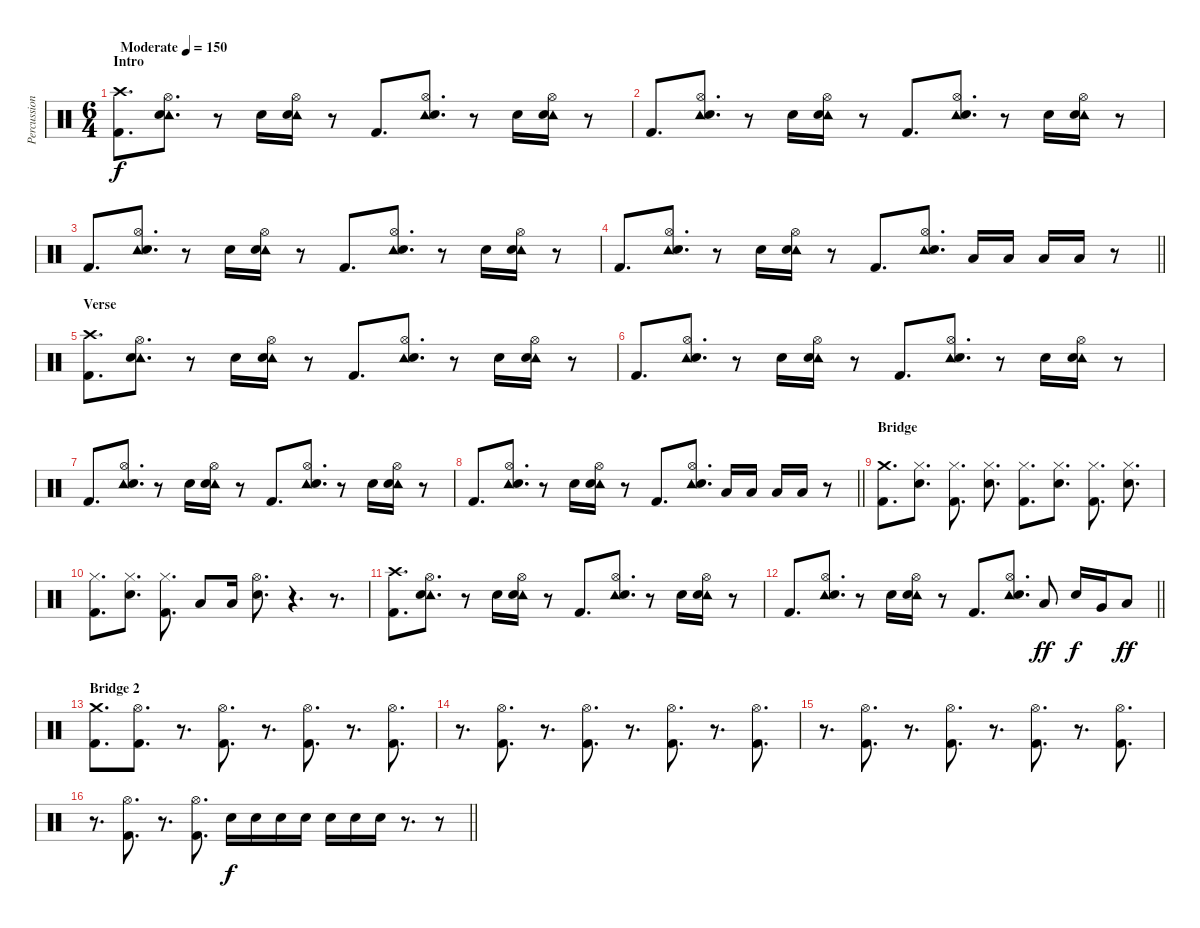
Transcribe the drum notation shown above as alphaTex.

\track ("Percussion" "Percussion") {solo instrument percussion}
\staff {score}
\articulation defaults
\ts (6 4)
\section ("" "Intro")
\tempo (150 "Moderate")
\clef neutral
\ks c
("Crash high (hit)" "Kick (hit) 2").8{d dy f} ("Tambourine (hit)" "Hi-Hat (open)" "Electric Snare (hit)").8{d} r.8 "Electric Snare (hit)".16 ("Tambourine (hit)" "Hi-Hat (open)" "Electric Snare (hit)").16 r.8 "Kick (hit) 2".8{d} ("Tambourine (hit)" "Hi-Hat (open)" "Electric Snare (hit)").8{d} r.8 "Electric Snare (hit)".16 ("Tambourine (hit)" "Hi-Hat (open)" "Electric Snare (hit)").16 r.8 |
"Kick (hit) 2".8{d} ("Tambourine (hit)" "Hi-Hat (open)" "Electric Snare (hit)").8{d} r.8 "Electric Snare (hit)".16 ("Tambourine (hit)" "Hi-Hat (open)" "Electric Snare (hit)").16 r.8 "Kick (hit) 2".8{d} ("Tambourine (hit)" "Hi-Hat (open)" "Electric Snare (hit)").8{d} r.8 "Electric Snare (hit)".16 ("Tambourine (hit)" "Hi-Hat (open)" "Electric Snare (hit)").16 r.8 |
"Kick (hit) 2".8{d} ("Tambourine (hit)" "Hi-Hat (open)" "Electric Snare (hit)").8{d} r.8 "Electric Snare (hit)".16 ("Tambourine (hit)" "Hi-Hat (open)" "Electric Snare (hit)").16 r.8 "Kick (hit) 2".8{d} ("Tambourine (hit)" "Hi-Hat (open)" "Electric Snare (hit)").8{d} r.8 "Electric Snare (hit)".16 ("Tambourine (hit)" "Hi-Hat (open)" "Electric Snare (hit)").16 r.8 |
\barLineRight lightlight "Kick (hit) 2".8{d}
("Tambourine (hit)" "Hi-Hat (open)" "Electric Snare (hit)").8{d} r.8 "Electric Snare (hit)".16 ("Tambourine (hit)" "Hi-Hat (open)" "Electric Snare (hit)").16 r.8 "Kick (hit) 2".8{d} ("Tambourine (hit)" "Hi-Hat (open)" "Electric Snare (hit)").8{d} "Low Tom (hit)".16 "Low Tom (hit)".16 "Low Tom (hit)".16 "Low Floor Tom (hit)".16 r.8 |
\section ("" "Verse")
("Crash high (hit)" "Kick (hit) 2").8{d} ("Tambourine (hit)" "Hi-Hat (open)" "Electric Snare (hit)").8{d} r.8 "Electric Snare (hit)".16 ("Tambourine (hit)" "Hi-Hat (open)" "Electric Snare (hit)").16 r.8 "Kick (hit) 2".8{d} ("Tambourine (hit)" "Hi-Hat (open)" "Electric Snare (hit)").8{d} r.8 "Electric Snare (hit)".16 ("Tambourine (hit)" "Hi-Hat (open)" "Electric Snare (hit)").16 r.8 |
"Kick (hit) 2".8{d} ("Tambourine (hit)" "Hi-Hat (open)" "Electric Snare (hit)").8{d} r.8 "Electric Snare (hit)".16 ("Tambourine (hit)" "Hi-Hat (open)" "Electric Snare (hit)").16 r.8 "Kick (hit) 2".8{d} ("Tambourine (hit)" "Hi-Hat (open)" "Electric Snare (hit)").8{d} r.8 "Electric Snare (hit)".16 ("Tambourine (hit)" "Hi-Hat (open)" "Electric Snare (hit)").16 r.8 |
"Kick (hit) 2".8{d} ("Tambourine (hit)" "Hi-Hat (open)" "Electric Snare (hit)").8{d} r.8 "Electric Snare (hit)".16 ("Tambourine (hit)" "Hi-Hat (open)" "Electric Snare (hit)").16 r.8 "Kick (hit) 2".8{d} ("Tambourine (hit)" "Hi-Hat (open)" "Electric Snare (hit)").8{d} r.8 "Electric Snare (hit)".16 ("Tambourine (hit)" "Hi-Hat (open)" "Electric Snare (hit)").16 r.8 |
\barLineRight lightlight "Kick (hit) 2".8{d}
("Tambourine (hit)" "Hi-Hat (open)" "Electric Snare (hit)").8{d} r.8 "Electric Snare (hit)".16 ("Tambourine (hit)" "Hi-Hat (open)" "Electric Snare (hit)").16 r.8 "Kick (hit) 2".8{d} ("Tambourine (hit)" "Hi-Hat (open)" "Electric Snare (hit)").8{d} "Low Tom (hit)".16 "Low Tom (hit)".16 "Low Tom (hit)".16 "Low Floor Tom (hit)".16 r.8 |
\section ("" "Bridge")
("Crash medium (hit)" "Kick (hit) 2").8{d} ("Hi-Hat (closed)" "Electric Snare (hit)").8{d} ("Hi-Hat (closed)" "Kick (hit) 2").8{d} ("Hi-Hat (closed)" "Electric Snare (hit)").8{d} ("Hi-Hat (closed)" "Kick (hit) 2").8{d} ("Hi-Hat (closed)" "Electric Snare (hit)").8{d} ("Hi-Hat (closed)" "Kick (hit) 2").8{d} ("Hi-Hat (closed)" "Electric Snare (hit)").8{d} |
("Hi-Hat (closed)" "Kick (hit) 2").8{d} ("Hi-Hat (closed)" "Electric Snare (hit)").8{d} ("Hi-Hat (closed)" "Kick (hit) 2").8{d} "Low Tom (hit)".8 "Low Tom (hit)".16 ("Hi-Hat (open)" "Electric Snare (hit)").8{d} r.4{d} r.8{d} |
("Crash high (hit)" "Kick (hit) 2").8{d} ("Tambourine (hit)" "Hi-Hat (open)" "Electric Snare (hit)").8{d} r.8 "Electric Snare (hit)".16 ("Tambourine (hit)" "Hi-Hat (open)" "Electric Snare (hit)").16 r.8 "Kick (hit) 2".8{d} ("Tambourine (hit)" "Hi-Hat (open)" "Electric Snare (hit)").8{d} r.8 "Electric Snare (hit)".16 ("Tambourine (hit)" "Hi-Hat (open)" "Electric Snare (hit)").16 r.8 |
\barLineRight lightlight "Kick (hit) 2".8{d}
("Tambourine (hit)" "Hi-Hat (open)" "Electric Snare (hit)").8{d} r.8 "Electric Snare (hit)".16 ("Tambourine (hit)" "Hi-Hat (open)" "Electric Snare (hit)").16 r.8 "Kick (hit) 2".8{d} ("Tambourine (hit)" "Hi-Hat (open)" "Electric Snare (hit)").8{d} "Low Tom (hit)".8{dy ff} "Electric Snare (hit)".16{dy f} "Very Low Tom (hit)".16 "Low Floor Tom (hit)".8{dy ff} |
\section ("" "Bridge 2")
("Crash medium (hit)" "Kick (hit) 2").8{d} ("Hi-Hat (open)" "Kick (hit) 2").8{d} r.8{d} ("Hi-Hat (open)" "Kick (hit) 2").8{d} r.8{d} ("Hi-Hat (open)" "Kick (hit) 2").8{d} r.8{d} ("Hi-Hat (open)" "Kick (hit) 2").8{d} |
r.8{d} ("Hi-Hat (open)" "Kick (hit) 2").8{d} r.8{d} ("Hi-Hat (open)" "Kick (hit) 2").8{d} r.8{d} ("Hi-Hat (open)" "Kick (hit) 2").8{d} r.8{d} ("Hi-Hat (open)" "Kick (hit) 2").8{d} |
r.8{d} ("Hi-Hat (open)" "Kick (hit) 2").8{d} r.8{d} ("Hi-Hat (open)" "Kick (hit) 2").8{d} r.8{d} ("Hi-Hat (open)" "Kick (hit) 2").8{d} r.8{d} ("Hi-Hat (open)" "Kick (hit) 2").8{d} |
\barLineRight lightlight
r.8{d} ("Hi-Hat (open)" "Kick (hit) 2").8{d} r.8{d} ("Hi-Hat (open)" "Kick (hit) 2").8{d} "Electric Snare (hit)".16{dy f} "Electric Snare (hit)".16 "Electric Snare (hit)".16 "Electric Snare (hit)".16 "Electric Snare (hit)".16 "Electric Snare (hit)".16 "Electric Snare (hit)".16 r.8{d} r.8
